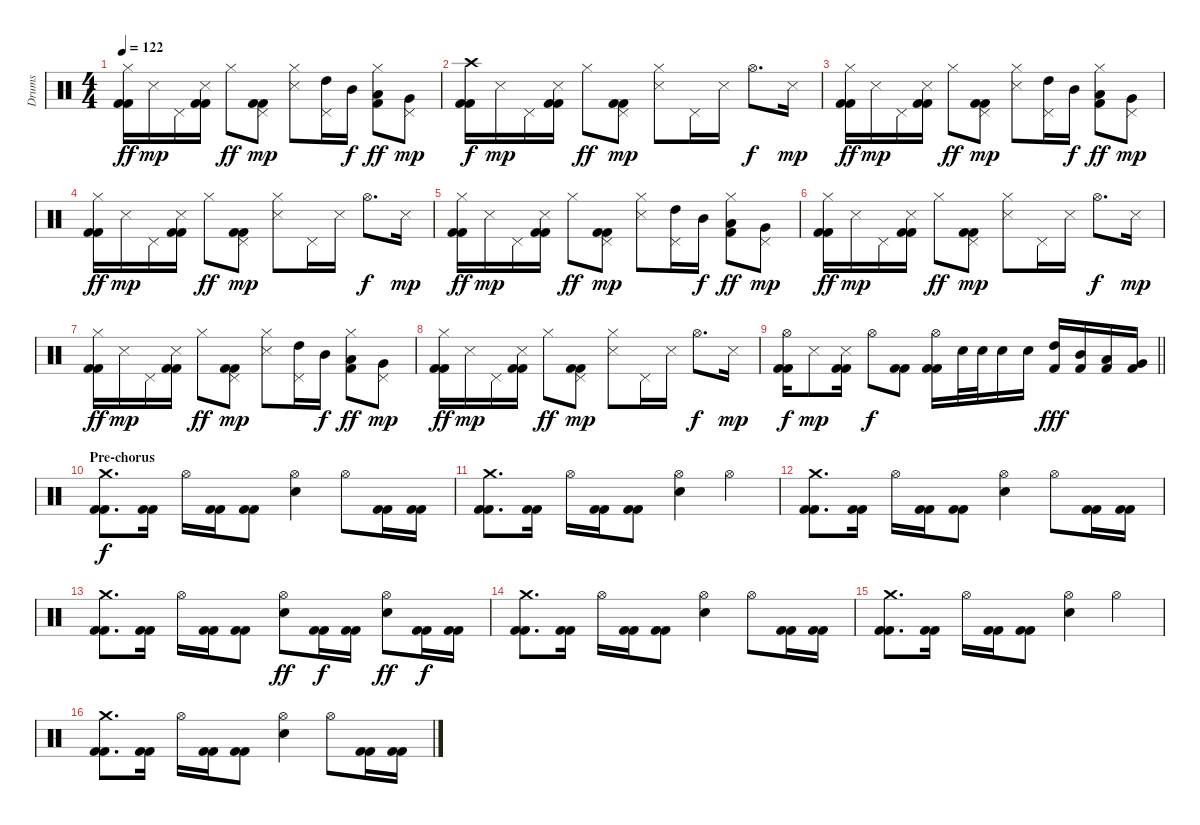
\track ("Drums" "Drums") {instrument percussion}
\staff {score}
\articulation defaults
\ts (4 4)
\tempo 122
\clef neutral
\ks c
("Hi-Hat (closed)" "Kick (hit) 2" "Kick (hit) 2").16{dy ff} "Snare (side stick) 3".16{dy mp} "Pedal Hi-Hat (hit)".16 ("Snare (side stick) 3" "Kick (hit) 2" "Kick (hit) 2").16 "Hi-Hat (closed)".8{dy ff} ("Pedal Hi-Hat (hit)" "Kick (hit) 2" "Kick (hit) 2").8{dy mp} ("Hi-Hat (closed)" "Snare (side stick) 3").8 ("Pedal Hi-Hat (hit)" "High Tom (hit)").16 "Mid Tom (hit)".16{dy f} ("Hi-Hat (closed)" "Low Tom (hit)" "Kick (hit) 2").8{dy ff} ("Pedal Hi-Hat (hit)" "Very Low Tom (hit)").8{dy mp} |
("Crash high (hit)" "Kick (hit) 2" "Kick (hit) 2").16{dy f} "Snare (side stick) 3".16{dy mp} "Pedal Hi-Hat (hit)".16 ("Snare (side stick) 3" "Kick (hit) 2" "Kick (hit) 2").16 "Hi-Hat (closed)".8{dy ff} ("Pedal Hi-Hat (hit)" "Kick (hit) 2" "Kick (hit) 2").8{dy mp} ("Hi-Hat (closed)" "Snare (side stick) 3").8 "Pedal Hi-Hat (hit)".16 "Snare (side stick) 3".16 "Hi-Hat (open)".8{d dy f} "Snare (side stick) 3".16{dy mp} |
("Hi-Hat (closed)" "Kick (hit) 2" "Kick (hit) 2").16{dy ff} "Snare (side stick) 3".16{dy mp} "Pedal Hi-Hat (hit)".16 ("Snare (side stick) 3" "Kick (hit) 2" "Kick (hit) 2").16 "Hi-Hat (closed)".8{dy ff} ("Pedal Hi-Hat (hit)" "Kick (hit) 2" "Kick (hit) 2").8{dy mp} ("Hi-Hat (closed)" "Snare (side stick) 3").8 ("Pedal Hi-Hat (hit)" "High Tom (hit)").16 "Mid Tom (hit)".16{dy f} ("Hi-Hat (closed)" "Low Tom (hit)" "Kick (hit) 2").8{dy ff} ("Pedal Hi-Hat (hit)" "Very Low Tom (hit)").8{dy mp} |
("Hi-Hat (closed)" "Kick (hit) 2" "Kick (hit) 2").16{dy ff} "Snare (side stick) 3".16{dy mp} "Pedal Hi-Hat (hit)".16 ("Snare (side stick) 3" "Kick (hit) 2" "Kick (hit) 2").16 "Hi-Hat (closed)".8{dy ff} ("Pedal Hi-Hat (hit)" "Kick (hit) 2" "Kick (hit) 2").8{dy mp} ("Hi-Hat (closed)" "Snare (side stick) 3").8 "Pedal Hi-Hat (hit)".16 "Snare (side stick) 3".16 "Hi-Hat (open)".8{d dy f} "Snare (side stick) 3".16{dy mp} |
("Hi-Hat (closed)" "Kick (hit) 2" "Kick (hit) 2").16{dy ff} "Snare (side stick) 3".16{dy mp} "Pedal Hi-Hat (hit)".16 ("Snare (side stick) 3" "Kick (hit) 2" "Kick (hit) 2").16 "Hi-Hat (closed)".8{dy ff} ("Pedal Hi-Hat (hit)" "Kick (hit) 2" "Kick (hit) 2").8{dy mp} ("Hi-Hat (closed)" "Snare (side stick) 3").8 ("Pedal Hi-Hat (hit)" "High Tom (hit)").16 "Mid Tom (hit)".16{dy f} ("Hi-Hat (closed)" "Low Tom (hit)" "Kick (hit) 2").8{dy ff} ("Pedal Hi-Hat (hit)" "Very Low Tom (hit)").8{dy mp} |
("Hi-Hat (closed)" "Kick (hit) 2" "Kick (hit) 2").16{dy ff} "Snare (side stick) 3".16{dy mp} "Pedal Hi-Hat (hit)".16 ("Snare (side stick) 3" "Kick (hit) 2" "Kick (hit) 2").16 "Hi-Hat (closed)".8{dy ff} ("Pedal Hi-Hat (hit)" "Kick (hit) 2" "Kick (hit) 2").8{dy mp} ("Hi-Hat (closed)" "Snare (side stick) 3").8 "Pedal Hi-Hat (hit)".16 "Snare (side stick) 3".16 "Hi-Hat (open)".8{d dy f} "Snare (side stick) 3".16{dy mp} |
("Hi-Hat (closed)" "Kick (hit) 2" "Kick (hit) 2").16{dy ff} "Snare (side stick) 3".16{dy mp} "Pedal Hi-Hat (hit)".16 ("Snare (side stick) 3" "Kick (hit) 2" "Kick (hit) 2").16 "Hi-Hat (closed)".8{dy ff} ("Pedal Hi-Hat (hit)" "Kick (hit) 2" "Kick (hit) 2").8{dy mp} ("Hi-Hat (closed)" "Snare (side stick) 3").8 ("Pedal Hi-Hat (hit)" "High Tom (hit)").16 "Mid Tom (hit)".16{dy f} ("Hi-Hat (closed)" "Low Tom (hit)" "Kick (hit) 2").8{dy ff} ("Pedal Hi-Hat (hit)" "Very Low Tom (hit)").8{dy mp} |
("Hi-Hat (closed)" "Kick (hit) 2" "Kick (hit) 2").16{dy ff} "Snare (side stick) 3".16{dy mp} "Pedal Hi-Hat (hit)".16 ("Snare (side stick) 3" "Kick (hit) 2" "Kick (hit) 2").16 "Hi-Hat (closed)".8{dy ff} ("Pedal Hi-Hat (hit)" "Kick (hit) 2" "Kick (hit) 2").8{dy mp} ("Hi-Hat (closed)" "Snare (side stick) 3").8 "Pedal Hi-Hat (hit)".16 "Snare (side stick) 3".16 "Hi-Hat (open)".8{d dy f} "Snare (side stick) 3".16{dy mp} |
\barLineRight lightlight
("Hi-Hat (open)" "Kick (hit) 2" "Kick (hit) 2").16{dy f} "Snare (side stick) 3".8{dy mp} ("Snare (side stick) 3" "Kick (hit) 2" "Kick (hit) 2").16 "Hi-Hat (open)".8{dy f} ("Kick (hit) 2" "Kick (hit) 2").8 ("Hi-Hat (open)" "Kick (hit) 2" "Kick (hit) 2").16 "Electric Snare (hit)".32 "Electric Snare (hit)".32 "Electric Snare (hit)".16 "Electric Snare (hit)".16 ("High Tom (hit)" "Kick (hit) 2").16{dy fff} ("Mid Tom (hit)" "Kick (hit) 2").16 ("Low Tom (hit)" "Kick (hit) 2").16 ("Very Low Tom (hit)" "Kick (hit) 2").16 |
\section ("" "Pre-chorus")
("Crash medium (hit)" "Kick (hit) 2" "Kick (hit) 2").8{d dy f} ("Kick (hit) 2" "Kick (hit) 2").16 "Hi-Hat (open)".16 ("Kick (hit) 2" "Kick (hit) 2").16 ("Kick (hit) 2" "Kick (hit) 2").8 ("Hi-Hat (open)" "Electric Snare (hit)").4 "Hi-Hat (open)".8 ("Kick (hit) 2" "Kick (hit) 2").16 ("Kick (hit) 2" "Kick (hit) 2").16 |
("Crash medium (hit)" "Kick (hit) 2" "Kick (hit) 2").8{d} ("Kick (hit) 2" "Kick (hit) 2").16 "Hi-Hat (open)".16 ("Kick (hit) 2" "Kick (hit) 2").16 ("Kick (hit) 2" "Kick (hit) 2").8 ("Hi-Hat (open)" "Electric Snare (hit)").4 "Hi-Hat (open)".4 |
("Crash medium (hit)" "Kick (hit) 2" "Kick (hit) 2").8{d} ("Kick (hit) 2" "Kick (hit) 2").16 "Hi-Hat (open)".16 ("Kick (hit) 2" "Kick (hit) 2").16 ("Kick (hit) 2" "Kick (hit) 2").8 ("Hi-Hat (open)" "Electric Snare (hit)").4 "Hi-Hat (open)".8 ("Kick (hit) 2" "Kick (hit) 2").16 ("Kick (hit) 2" "Kick (hit) 2").16 |
("Crash medium (hit)" "Kick (hit) 2" "Kick (hit) 2").8{d} ("Kick (hit) 2" "Kick (hit) 2").16 "Hi-Hat (open)".16 ("Kick (hit) 2" "Kick (hit) 2").16 ("Kick (hit) 2" "Kick (hit) 2").8 ("Hi-Hat (open)" "Electric Snare (hit)").8{dy ff} ("Kick (hit) 2" "Kick (hit) 2").16{dy f} ("Kick (hit) 2" "Kick (hit) 2").16 ("Hi-Hat (open)" "Electric Snare (hit)").8{dy ff} ("Kick (hit) 2" "Kick (hit) 2").16{dy f} ("Kick (hit) 2" "Kick (hit) 2").16 |
("Crash medium (hit)" "Kick (hit) 2" "Kick (hit) 2").8{d} ("Kick (hit) 2" "Kick (hit) 2").16 "Hi-Hat (open)".16 ("Kick (hit) 2" "Kick (hit) 2").16 ("Kick (hit) 2" "Kick (hit) 2").8 ("Hi-Hat (open)" "Electric Snare (hit)").4 "Hi-Hat (open)".8 ("Kick (hit) 2" "Kick (hit) 2").16 ("Kick (hit) 2" "Kick (hit) 2").16 |
("Crash medium (hit)" "Kick (hit) 2" "Kick (hit) 2").8{d} ("Kick (hit) 2" "Kick (hit) 2").16 "Hi-Hat (open)".16 ("Kick (hit) 2" "Kick (hit) 2").16 ("Kick (hit) 2" "Kick (hit) 2").8 ("Hi-Hat (open)" "Electric Snare (hit)").4 "Hi-Hat (open)".4 |
("Crash medium (hit)" "Kick (hit) 2" "Kick (hit) 2").8{d} ("Kick (hit) 2" "Kick (hit) 2").16 "Hi-Hat (open)".16 ("Kick (hit) 2" "Kick (hit) 2").16 ("Kick (hit) 2" "Kick (hit) 2").8 ("Hi-Hat (open)" "Electric Snare (hit)").4 "Hi-Hat (open)".8 ("Kick (hit) 2" "Kick (hit) 2").16 ("Kick (hit) 2" "Kick (hit) 2").16
